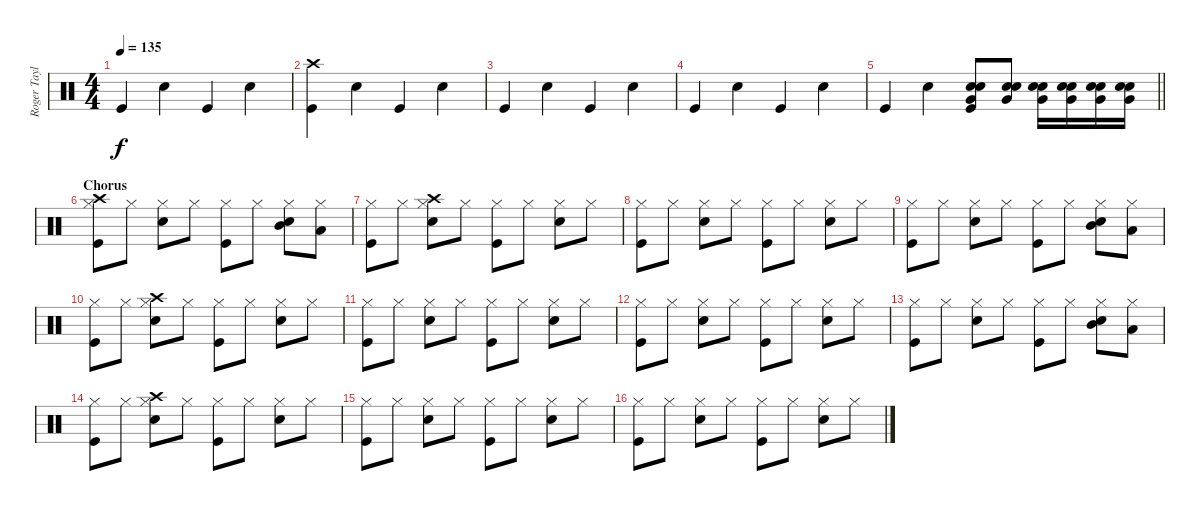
\track ("Roger Taylor" "Roger Tayl") {instrument percussion}
\staff {score}
\articulation defaults
\ts (4 4)
\tempo 135
\clef neutral
\ks c "Kick (hit)".4{dy f} "Snare (hit) 2".4 "Kick (hit)".4 "Snare (hit) 2".4
|
("Crash high (hit)" "Kick (hit)").4 "Snare (hit) 2".4 "Kick (hit)".4 "Snare (hit) 2".4 |
"Kick (hit)".4 "Snare (hit) 2".4 "Kick (hit)".4 "Snare (hit) 2".4 |
"Kick (hit)".4 "Snare (hit) 2".4 "Kick (hit)".4 "Snare (hit) 2".4 |
\barLineRight lightlight "Kick (hit)".4 "Snare (hit) 2".4
("Very Low Tom (hit)" "Electric Snare (hit)" "Snare (hit) 2" "Kick (hit)").8 ("Very Low Tom (hit)" "Electric Snare (hit)" "Snare (hit) 2").8 ("Very Low Tom (hit)" "Electric Snare (hit)" "Snare (hit) 2").16 ("Very Low Tom (hit)" "Electric Snare (hit)" "Snare (hit) 2").16 ("Very Low Tom (hit)" "Electric Snare (hit)" "Snare (hit) 2").16 ("Very Low Tom (hit)" "Electric Snare (hit)" "Snare (hit) 2").16 |
\section ("" "Chorus")
("Crash high (hit)" "Hi-Hat (closed)" "Kick (hit)").8 "Hi-Hat (closed)".8 ("Hi-Hat (closed)" "Snare (hit) 2").8 "Hi-Hat (closed)".8 ("Hi-Hat (closed)" "Kick (hit)").8 "Hi-Hat (closed)".8 ("Hi-Hat (closed)" "Mid Tom (hit)" "Snare (hit) 2").8 ("Hi-Hat (closed)" "Low Tom (hit)").8 |
("Hi-Hat (closed)" "Kick (hit)").8 "Hi-Hat (closed)".8 ("Crash high (hit)" "Hi-Hat (closed)" "Snare (hit) 2").8 "Hi-Hat (closed)".8 ("Hi-Hat (closed)" "Kick (hit)").8 "Hi-Hat (closed)".8 ("Hi-Hat (closed)" "Snare (hit) 2").8 "Hi-Hat (closed)".8 |
("Hi-Hat (closed)" "Kick (hit)").8 "Hi-Hat (closed)".8 ("Hi-Hat (closed)" "Snare (hit) 2").8 "Hi-Hat (closed)".8 ("Hi-Hat (closed)" "Kick (hit)").8 "Hi-Hat (closed)".8 ("Hi-Hat (closed)" "Snare (hit) 2").8 "Hi-Hat (closed)".8 |
("Hi-Hat (closed)" "Kick (hit)").8 "Hi-Hat (closed)".8 ("Hi-Hat (closed)" "Snare (hit) 2").8 "Hi-Hat (closed)".8 ("Hi-Hat (closed)" "Kick (hit)").8 "Hi-Hat (closed)".8 ("Hi-Hat (closed)" "Mid Tom (hit)" "Snare (hit) 2").8 ("Hi-Hat (closed)" "Low Tom (hit)").8 |
("Hi-Hat (closed)" "Kick (hit)").8 "Hi-Hat (closed)".8 ("Crash high (hit)" "Hi-Hat (closed)" "Snare (hit) 2").8 "Hi-Hat (closed)".8 ("Hi-Hat (closed)" "Kick (hit)").8 "Hi-Hat (closed)".8 ("Hi-Hat (closed)" "Snare (hit) 2").8 "Hi-Hat (closed)".8 |
("Hi-Hat (closed)" "Kick (hit)").8 "Hi-Hat (closed)".8 ("Hi-Hat (closed)" "Snare (hit) 2").8 "Hi-Hat (closed)".8 ("Hi-Hat (closed)" "Kick (hit)").8 "Hi-Hat (closed)".8 ("Hi-Hat (closed)" "Snare (hit) 2").8 "Hi-Hat (closed)".8 |
("Hi-Hat (closed)" "Kick (hit)").8 "Hi-Hat (closed)".8 ("Hi-Hat (closed)" "Snare (hit) 2").8 "Hi-Hat (closed)".8 ("Hi-Hat (closed)" "Kick (hit)").8 "Hi-Hat (closed)".8 ("Hi-Hat (closed)" "Snare (hit) 2").8 "Hi-Hat (closed)".8 |
("Hi-Hat (closed)" "Kick (hit)").8 "Hi-Hat (closed)".8 ("Hi-Hat (closed)" "Snare (hit) 2").8 "Hi-Hat (closed)".8 ("Hi-Hat (closed)" "Kick (hit)").8 "Hi-Hat (closed)".8 ("Hi-Hat (closed)" "Mid Tom (hit)" "Snare (hit) 2").8 ("Hi-Hat (closed)" "Low Tom (hit)").8 |
("Hi-Hat (closed)" "Kick (hit)").8 "Hi-Hat (closed)".8 ("Crash high (hit)" "Hi-Hat (closed)" "Snare (hit) 2").8 "Hi-Hat (closed)".8 ("Hi-Hat (closed)" "Kick (hit)").8 "Hi-Hat (closed)".8 ("Hi-Hat (closed)" "Snare (hit) 2").8 "Hi-Hat (closed)".8 |
("Hi-Hat (closed)" "Kick (hit)").8 "Hi-Hat (closed)".8 ("Hi-Hat (closed)" "Snare (hit) 2").8 "Hi-Hat (closed)".8 ("Hi-Hat (closed)" "Kick (hit)").8 "Hi-Hat (closed)".8 ("Hi-Hat (closed)" "Snare (hit) 2").8 "Hi-Hat (closed)".8 |
("Hi-Hat (closed)" "Kick (hit)").8 "Hi-Hat (closed)".8 ("Hi-Hat (closed)" "Snare (hit) 2").8 "Hi-Hat (closed)".8 ("Hi-Hat (closed)" "Kick (hit)").8 "Hi-Hat (closed)".8 ("Hi-Hat (closed)" "Snare (hit) 2").8 "Hi-Hat (closed)".8
